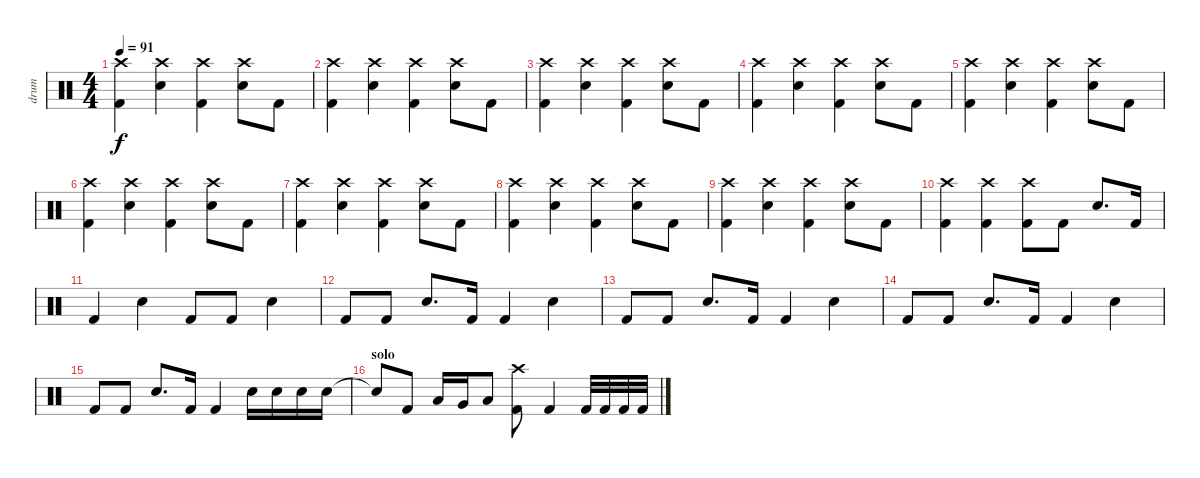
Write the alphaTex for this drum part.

\track ("drum" "drum") {instrument percussion}
\staff {score}
\articulation defaults
\ts (4 4)
\tempo 91
\clef neutral
\ks c
("Crash high (hit)" "Kick (hit) 2").4{dy f} ("Crash high (hit)" "Electric Snare (hit)").4 ("Crash high (hit)" "Kick (hit) 2").4 ("Crash high (hit)" "Electric Snare (hit)").8 "Kick (hit) 2".8 |
("Crash high (hit)" "Kick (hit) 2").4 ("Crash high (hit)" "Electric Snare (hit)").4 ("Crash high (hit)" "Kick (hit) 2").4 ("Crash high (hit)" "Electric Snare (hit)").8 "Kick (hit) 2".8 |
("Crash high (hit)" "Kick (hit) 2").4 ("Crash high (hit)" "Electric Snare (hit)").4 ("Crash high (hit)" "Kick (hit) 2").4 ("Crash high (hit)" "Electric Snare (hit)").8 "Kick (hit) 2".8 |
("Crash high (hit)" "Kick (hit) 2").4 ("Crash high (hit)" "Electric Snare (hit)").4 ("Crash high (hit)" "Kick (hit) 2").4 ("Crash high (hit)" "Electric Snare (hit)").8 "Kick (hit) 2".8 |
("Crash high (hit)" "Kick (hit) 2").4 ("Crash high (hit)" "Electric Snare (hit)").4 ("Crash high (hit)" "Kick (hit) 2").4 ("Crash high (hit)" "Electric Snare (hit)").8 "Kick (hit) 2".8 |
("Crash high (hit)" "Kick (hit) 2").4 ("Crash high (hit)" "Electric Snare (hit)").4 ("Crash high (hit)" "Kick (hit) 2").4 ("Crash high (hit)" "Electric Snare (hit)").8 "Kick (hit) 2".8 |
("Crash high (hit)" "Kick (hit) 2").4 ("Crash high (hit)" "Electric Snare (hit)").4 ("Crash high (hit)" "Kick (hit) 2").4 ("Crash high (hit)" "Electric Snare (hit)").8 "Kick (hit) 2".8 |
("Crash high (hit)" "Kick (hit) 2").4 ("Crash high (hit)" "Electric Snare (hit)").4 ("Crash high (hit)" "Kick (hit) 2").4 ("Crash high (hit)" "Electric Snare (hit)").8 "Kick (hit) 2".8 |
("Crash high (hit)" "Kick (hit) 2").4 ("Crash high (hit)" "Electric Snare (hit)").4 ("Crash high (hit)" "Kick (hit) 2").4 ("Crash high (hit)" "Electric Snare (hit)").8 "Kick (hit) 2".8 |
("Crash high (hit)" "Kick (hit) 2").4 ("Crash high (hit)" "Kick (hit) 2").4 ("Crash high (hit)" "Kick (hit) 2").8 "Kick (hit) 2".8 "Electric Snare (hit)".8{d} "Kick (hit) 2".16 |
"Kick (hit) 2".4 "Electric Snare (hit)".4 "Kick (hit) 2".8 "Kick (hit) 2".8 "Electric Snare (hit)".4 |
"Kick (hit) 2".8 "Kick (hit) 2".8 "Electric Snare (hit)".8{d} "Kick (hit) 2".16 "Kick (hit) 2".4 "Electric Snare (hit)".4 |
"Kick (hit) 2".8 "Kick (hit) 2".8 "Electric Snare (hit)".8{d} "Kick (hit) 2".16 "Kick (hit) 2".4 "Electric Snare (hit)".4 |
"Kick (hit) 2".8 "Kick (hit) 2".8 "Electric Snare (hit)".8{d} "Kick (hit) 2".16 "Kick (hit) 2".4 "Electric Snare (hit)".4 |
"Kick (hit) 2".8 "Kick (hit) 2".8 "Electric Snare (hit)".8{d} "Kick (hit) 2".16 "Kick (hit) 2".4 "Electric Snare (hit)".16 "Electric Snare (hit)".16 "Electric Snare (hit)".16 "Electric Snare (hit)".16 |
\section ("" "solo")
"Electric Snare (hit)"{t}.8 "Kick (hit) 2".8 "Low Tom (hit)".16 "Very Low Tom (hit)".16 "Low Floor Tom (hit)".8 ("Crash high (hit)" "Kick (hit) 2").8 "Kick (hit) 2".4 "Kick (hit) 2".32 "Kick (hit) 2".32 "Kick (hit) 2".32 "Kick (hit) 2".32
